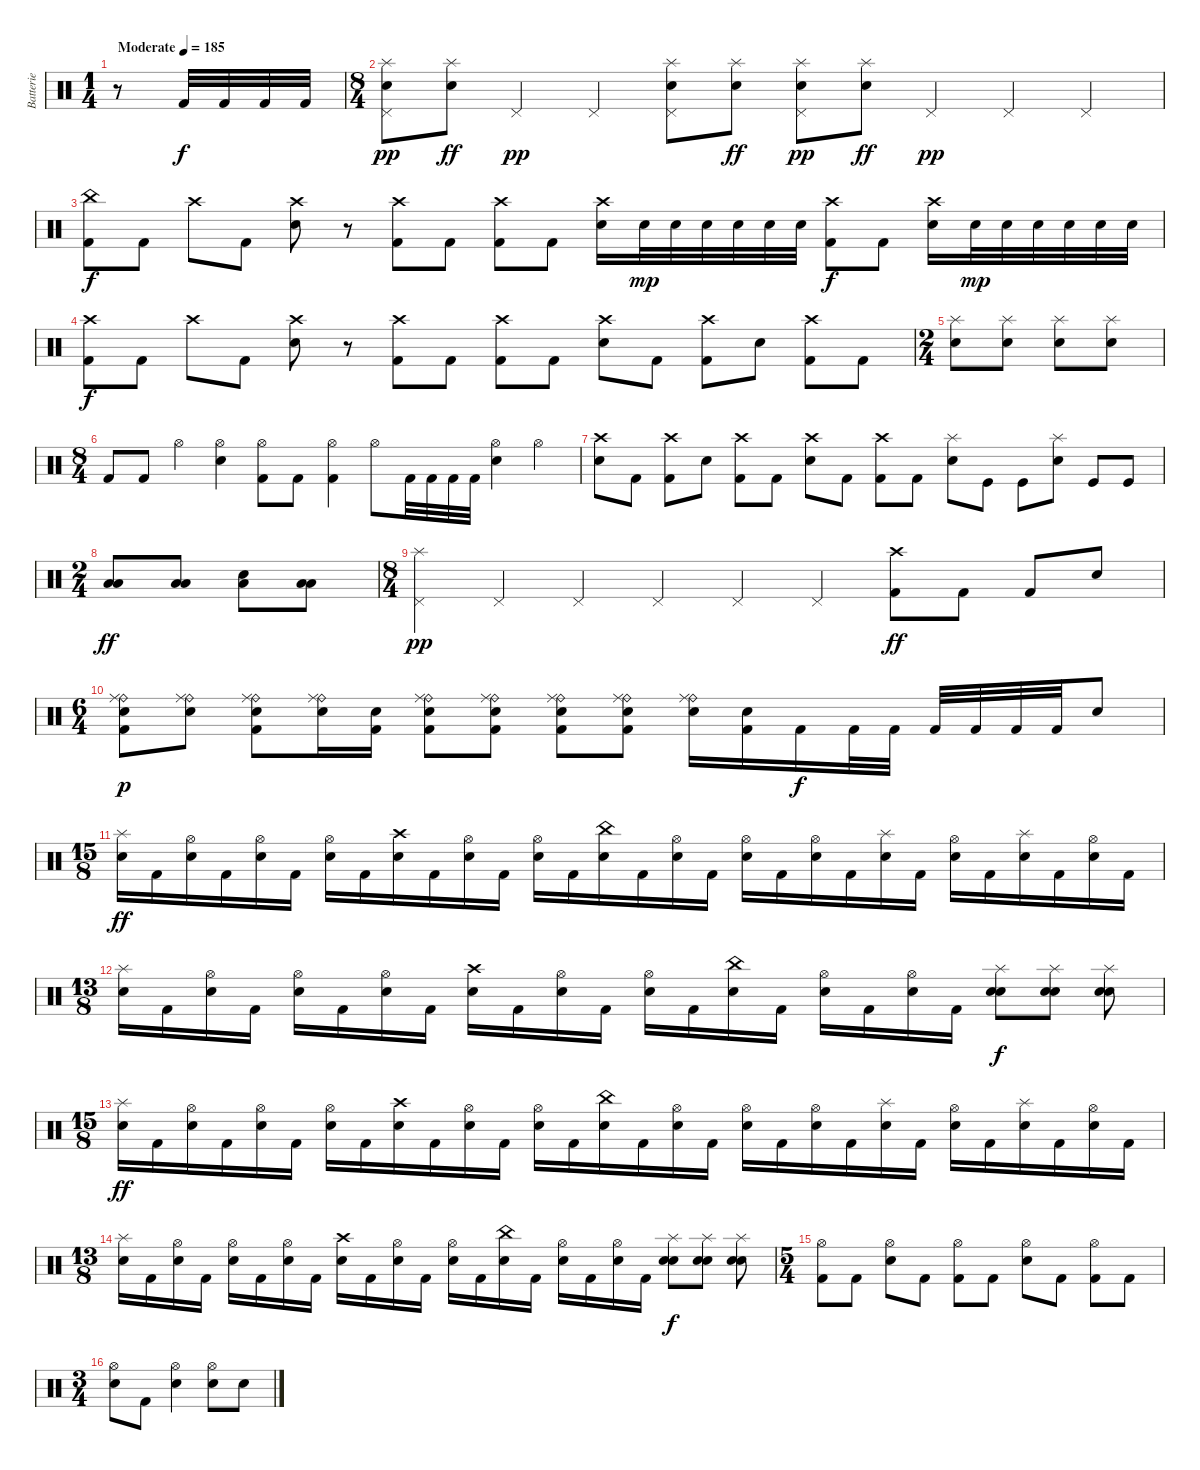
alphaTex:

\track ("Batterie" "Batterie") {instrument percussion}
\staff {score}
\articulation defaults
\ts (1 4)
\tempo (185 "Moderate")
\clef neutral
\ks c
r.8{dy f} "Kick (hit) 2".32 "Kick (hit) 2".32 "Kick (hit) 2".32 "Kick (hit) 2".32 |
\ts (8 4)
("Electric Snare (hit)" "Splash (hit)" "Pedal Hi-Hat (hit)").8{dy pp} ("Electric Snare (hit)" "Splash (hit)").8{dy ff} "Pedal Hi-Hat (hit)".4{dy pp} "Pedal Hi-Hat (hit)".4 ("Electric Snare (hit)" "Splash (hit)" "Pedal Hi-Hat (hit)").8 ("Electric Snare (hit)" "Splash (hit)").8{dy ff} ("Electric Snare (hit)" "Splash (hit)" "Pedal Hi-Hat (hit)").8{dy pp} ("Electric Snare (hit)" "Splash (hit)").8{dy ff} "Pedal Hi-Hat (hit)".4{dy pp} "Pedal Hi-Hat (hit)".4 "Pedal Hi-Hat (hit)".4 |
("China (hit)" "Kick (hit) 2").8{dy f} "Kick (hit) 2".8 "Crash high (hit)".8 "Kick (hit) 2".8 ("Crash high (hit)" "Electric Snare (hit)").8 r.8 ("Crash high (hit)" "Kick (hit) 2").8 "Kick (hit) 2".8 ("Crash high (hit)" "Kick (hit) 2").8 "Kick (hit) 2".8 ("Crash high (hit)" "Electric Snare (hit)").16 "Electric Snare (hit)".32{dy mp} "Electric Snare (hit)".32 "Electric Snare (hit)".32 "Electric Snare (hit)".32 "Electric Snare (hit)".32 "Electric Snare (hit)".32 ("Crash high (hit)" "Kick (hit) 2").8{dy f} "Kick (hit) 2".8 ("Crash high (hit)" "Electric Snare (hit)").16 "Electric Snare (hit)".32{dy mp} "Electric Snare (hit)".32 "Electric Snare (hit)".32 "Electric Snare (hit)".32 "Electric Snare (hit)".32 "Electric Snare (hit)".32 |
("Crash high (hit)" "Kick (hit) 2").8{dy f} "Kick (hit) 2".8 "Crash high (hit)".8 "Kick (hit) 2".8 ("Crash high (hit)" "Electric Snare (hit)").8 r.8 ("Crash high (hit)" "Kick (hit) 2").8 "Kick (hit) 2".8 ("Crash high (hit)" "Kick (hit) 2").8 "Kick (hit) 2".8 ("Crash high (hit)" "Electric Snare (hit)").8 "Kick (hit) 2".8 ("Crash high (hit)" "Kick (hit) 2").8 "Electric Snare (hit)".8 ("Crash high (hit)" "Kick (hit) 2").8 "Kick (hit) 2".8 |
\ts (2 4)
("Splash (hit)" "Electric Snare (hit)").8 ("Splash (hit)" "Electric Snare (hit)").8 ("Splash (hit)" "Electric Snare (hit)").8 ("Splash (hit)" "Electric Snare (hit)").8 |
\ts (8 4)
"Kick (hit) 2".8 "Kick (hit) 2".8 "Hi-Hat (open)".4 ("Hi-Hat (open)" "Electric Snare (hit)").4 ("Hi-Hat (open)" "Kick (hit) 2").8 "Kick (hit) 2".8 ("Hi-Hat (open)" "Kick (hit) 2").4 "Hi-Hat (open)".8 "Kick (hit) 2".32 "Kick (hit) 2".32 "Kick (hit) 2".32 "Kick (hit) 2".32 ("Hi-Hat (open)" "Electric Snare (hit)").4 "Hi-Hat (open)".4 |
("Crash high (hit)" "Electric Snare (hit)").8 "Kick (hit) 2".8 ("Crash high (hit)" "Kick (hit) 2").8 "Electric Snare (hit)".8 ("Crash high (hit)" "Kick (hit) 2").8 "Kick (hit) 2".8 ("Crash high (hit)" "Electric Snare (hit)").8 "Kick (hit) 2".8 ("Crash high (hit)" "Kick (hit) 2").8 "Kick (hit) 2".8 ("Splash (hit)" "Electric Snare (hit)").8 "Kick (hit)".8 "Kick (hit)".8 ("Splash (hit)" "Electric Snare (hit)").8 "Kick (hit)".8 "Kick (hit)".8 |
\ts (2 4)
("Low Floor Tom (hit)" "Low Floor Tom (hit)").8{dy ff} ("Low Floor Tom (hit)" "Low Floor Tom (hit)").8 ("Electric Snare (hit)" "Low Floor Tom (hit)").8 ("Low Floor Tom (hit)" "Low Floor Tom (hit)").8 |
\ts (8 4)
("Splash (hit)" "Pedal Hi-Hat (hit)").4{dy pp} "Pedal Hi-Hat (hit)".4 "Pedal Hi-Hat (hit)".4 "Pedal Hi-Hat (hit)".4 "Pedal Hi-Hat (hit)".4 "Pedal Hi-Hat (hit)".4 ("Crash high (hit)" "Kick (hit) 2").8{dy ff} "Kick (hit) 2".8 "Kick (hit) 2".8 "Electric Snare (hit)".8 |
\ts (6 4)
("Ride (bell)" "Ride (middle)" "Electric Snare (hit)" "Kick (hit) 2").8{dy p} ("Ride (bell)" "Ride (middle)" "Electric Snare (hit)").8 ("Ride (bell)" "Ride (middle)" "Electric Snare (hit)" "Kick (hit) 2").8 ("Ride (bell)" "Ride (middle)" "Electric Snare (hit)").16 ("Electric Snare (hit)" "Kick (hit) 2").16 ("Ride (bell)" "Ride (middle)" "Electric Snare (hit)" "Kick (hit) 2").8 ("Ride (bell)" "Ride (middle)" "Electric Snare (hit)" "Kick (hit) 2").8 ("Ride (bell)" "Ride (middle)" "Electric Snare (hit)" "Kick (hit) 2").8 ("Ride (bell)" "Ride (middle)" "Electric Snare (hit)" "Kick (hit) 2").8 ("Ride (bell)" "Ride (middle)" "Electric Snare (hit)").16 ("Electric Snare (hit)" "Kick (hit) 2").16 "Kick (hit) 2".16{dy f} "Kick (hit) 2".32 "Kick (hit) 2".32 "Kick (hit) 2".32 "Kick (hit) 2".32 "Kick (hit) 2".32 "Kick (hit) 2".32 "Electric Snare (hit)".8 |
\ts (15 8)
("Splash (hit)" "Electric Snare (hit)").16{dy ff} "Kick (hit) 2".16 ("Hi-Hat (open)" "Electric Snare (hit)").16 "Kick (hit) 2".16 ("Hi-Hat (open)" "Electric Snare (hit)").16 "Kick (hit) 2".16 ("Hi-Hat (open)" "Electric Snare (hit)").16 "Kick (hit) 2".16 ("Crash high (hit)" "Electric Snare (hit)").16 "Kick (hit) 2".16 ("Hi-Hat (open)" "Electric Snare (hit)").16 "Kick (hit) 2".16 ("Hi-Hat (open)" "Electric Snare (hit)").16 "Kick (hit) 2".16 ("China (hit)" "Electric Snare (hit)").16 "Kick (hit) 2".16 ("Hi-Hat (open)" "Electric Snare (hit)").16 "Kick (hit) 2".16 ("Hi-Hat (open)" "Electric Snare (hit)").16 "Kick (hit) 2".16 ("Hi-Hat (open)" "Electric Snare (hit)").16 "Kick (hit) 2".16 ("Splash (hit)" "Electric Snare (hit)").16 "Kick (hit) 2".16 ("Hi-Hat (open)" "Electric Snare (hit)").16 "Kick (hit) 2".16 ("Splash (hit)" "Electric Snare (hit)").16 "Kick (hit) 2".16 ("Hi-Hat (open)" "Electric Snare (hit)").16 "Kick (hit) 2".16 |
\ts (13 8)
("Splash (hit)" "Electric Snare (hit)").16 "Kick (hit) 2".16 ("Hi-Hat (open)" "Electric Snare (hit)").16 "Kick (hit) 2".16 ("Hi-Hat (open)" "Electric Snare (hit)").16 "Kick (hit) 2".16 ("Hi-Hat (open)" "Electric Snare (hit)").16 "Kick (hit) 2".16 ("Crash high (hit)" "Electric Snare (hit)").16 "Kick (hit) 2".16 ("Hi-Hat (open)" "Electric Snare (hit)").16 "Kick (hit) 2".16 ("Hi-Hat (open)" "Electric Snare (hit)").16 "Kick (hit) 2".16 ("China (hit)" "Electric Snare (hit)").16 "Kick (hit) 2".16 ("Hi-Hat (open)" "Electric Snare (hit)").16 "Kick (hit) 2".16 ("Hi-Hat (open)" "Electric Snare (hit)").16 "Kick (hit) 2".16 ("Splash (hit)" "Electric Snare (hit)" "Electric Snare (hit)").8{dy f} ("Splash (hit)" "Electric Snare (hit)" "Electric Snare (hit)").8 ("Splash (hit)" "Electric Snare (hit)" "Electric Snare (hit)").8 |
\ts (15 8)
("Splash (hit)" "Electric Snare (hit)").16{dy ff} "Kick (hit) 2".16 ("Hi-Hat (open)" "Electric Snare (hit)").16 "Kick (hit) 2".16 ("Hi-Hat (open)" "Electric Snare (hit)").16 "Kick (hit) 2".16 ("Hi-Hat (open)" "Electric Snare (hit)").16 "Kick (hit) 2".16 ("Crash high (hit)" "Electric Snare (hit)").16 "Kick (hit) 2".16 ("Hi-Hat (open)" "Electric Snare (hit)").16 "Kick (hit) 2".16 ("Hi-Hat (open)" "Electric Snare (hit)").16 "Kick (hit) 2".16 ("China (hit)" "Electric Snare (hit)").16 "Kick (hit) 2".16 ("Hi-Hat (open)" "Electric Snare (hit)").16 "Kick (hit) 2".16 ("Hi-Hat (open)" "Electric Snare (hit)").16 "Kick (hit) 2".16 ("Hi-Hat (open)" "Electric Snare (hit)").16 "Kick (hit) 2".16 ("Splash (hit)" "Electric Snare (hit)").16 "Kick (hit) 2".16 ("Hi-Hat (open)" "Electric Snare (hit)").16 "Kick (hit) 2".16 ("Splash (hit)" "Electric Snare (hit)").16 "Kick (hit) 2".16 ("Hi-Hat (open)" "Electric Snare (hit)").16 "Kick (hit) 2".16 |
\ts (13 8)
("Splash (hit)" "Electric Snare (hit)").16 "Kick (hit) 2".16 ("Hi-Hat (open)" "Electric Snare (hit)").16 "Kick (hit) 2".16 ("Hi-Hat (open)" "Electric Snare (hit)").16 "Kick (hit) 2".16 ("Hi-Hat (open)" "Electric Snare (hit)").16 "Kick (hit) 2".16 ("Crash high (hit)" "Electric Snare (hit)").16 "Kick (hit) 2".16 ("Hi-Hat (open)" "Electric Snare (hit)").16 "Kick (hit) 2".16 ("Hi-Hat (open)" "Electric Snare (hit)").16 "Kick (hit) 2".16 ("China (hit)" "Electric Snare (hit)").16 "Kick (hit) 2".16 ("Hi-Hat (open)" "Electric Snare (hit)").16 "Kick (hit) 2".16 ("Hi-Hat (open)" "Electric Snare (hit)").16 "Kick (hit) 2".16 ("Splash (hit)" "Electric Snare (hit)" "Electric Snare (hit)").8{dy f} ("Splash (hit)" "Electric Snare (hit)" "Electric Snare (hit)").8 ("Splash (hit)" "Electric Snare (hit)" "Electric Snare (hit)").8 |
\ts (5 4)
("Hi-Hat (open)" "Kick (hit) 2").8 "Kick (hit) 2".8 ("Hi-Hat (open)" "Electric Snare (hit)").8 "Kick (hit) 2".8 ("Hi-Hat (open)" "Kick (hit) 2").8 "Kick (hit) 2".8 ("Hi-Hat (open)" "Electric Snare (hit)").8 "Kick (hit) 2".8 ("Hi-Hat (open)" "Kick (hit) 2").8 "Kick (hit) 2".8 |
\ts (3 4)
("Hi-Hat (open)" "Electric Snare (hit)").8 "Kick (hit) 2".8 ("Hi-Hat (open)" "Electric Snare (hit)").4 ("Hi-Hat (open)" "Electric Snare (hit)").8 "Electric Snare (hit)".8
